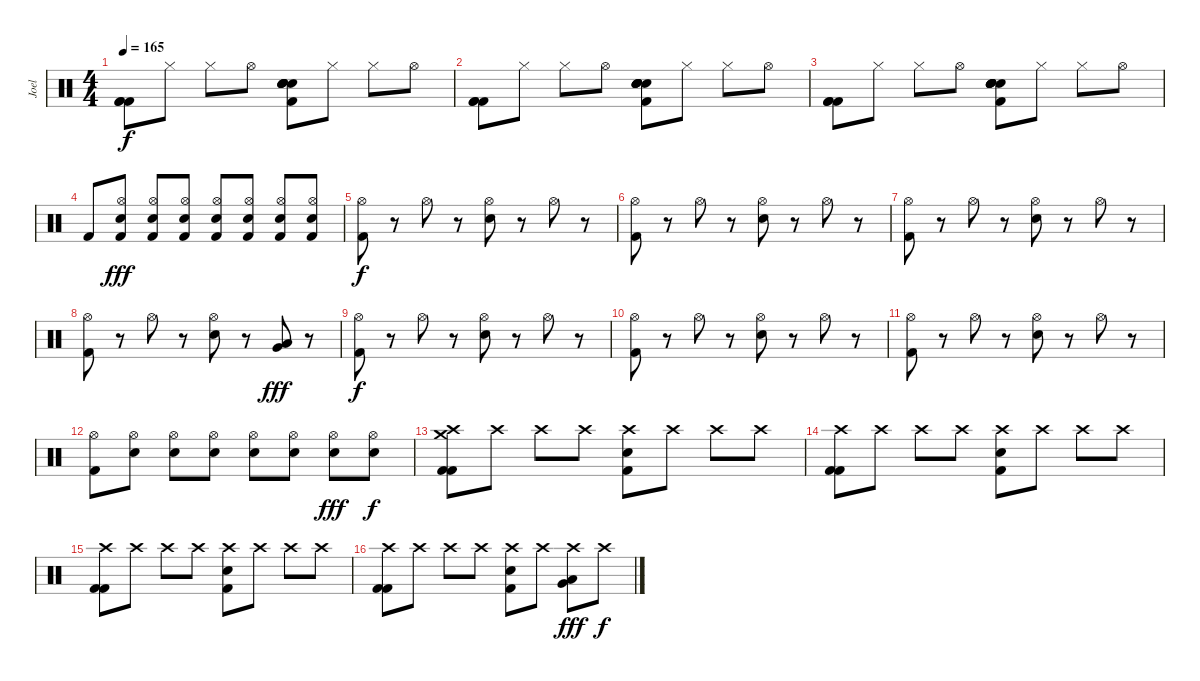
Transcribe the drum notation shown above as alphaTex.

\track ("Joel" "Joel") {instrument percussion}
\staff {score}
\articulation defaults
\ts (4 4)
\tempo 165
\clef neutral
\ks c
("Kick (hit) 2" "Kick (hit) 2" "Kick (hit) 2").8{dy f} "Hi-Hat (closed)".8 "Hi-Hat (closed)".8 "Hi-Hat (open)".8 ("Electric Snare (hit)" "Electric Snare (hit)" "Electric Snare (hit)" "Electric Snare (hit)" "Kick (hit) 2" "Electric Snare (hit)").8 "Hi-Hat (closed)".8 "Hi-Hat (closed)".8 "Hi-Hat (open)".8 |
("Kick (hit) 2" "Kick (hit) 2" "Kick (hit) 2").8 "Hi-Hat (closed)".8 "Hi-Hat (closed)".8 "Hi-Hat (open)".8 ("Electric Snare (hit)" "Electric Snare (hit)" "Electric Snare (hit)" "Electric Snare (hit)" "Kick (hit) 2" "Electric Snare (hit)").8 "Hi-Hat (closed)".8 "Hi-Hat (closed)".8 "Hi-Hat (open)".8 |
("Kick (hit) 2" "Kick (hit) 2" "Kick (hit) 2").8 "Hi-Hat (closed)".8 "Hi-Hat (closed)".8 "Hi-Hat (open)".8 ("Electric Snare (hit)" "Electric Snare (hit)" "Electric Snare (hit)" "Electric Snare (hit)" "Kick (hit) 2" "Electric Snare (hit)").8 "Hi-Hat (closed)".8 "Hi-Hat (closed)".8 "Hi-Hat (open)".8 |
"Kick (hit) 2".8 ("Hi-Hat (open)" "Kick (hit) 2" "Electric Snare (hit)").8{dy fff} ("Hi-Hat (open)" "Kick (hit) 2" "Electric Snare (hit)").8 ("Hi-Hat (open)" "Kick (hit) 2" "Electric Snare (hit)").8 ("Hi-Hat (open)" "Kick (hit) 2" "Electric Snare (hit)").8 ("Hi-Hat (open)" "Kick (hit) 2" "Electric Snare (hit)").8 ("Hi-Hat (open)" "Kick (hit) 2" "Electric Snare (hit)").8 ("Hi-Hat (open)" "Kick (hit) 2" "Electric Snare (hit)").8 |
("Hi-Hat (open)" "Kick (hit) 2").8{dy f} r.8 "Hi-Hat (open)".8 r.8 ("Hi-Hat (open)" "Electric Snare (hit)").8 r.8 "Hi-Hat (open)".8 r.8 |
("Hi-Hat (open)" "Kick (hit) 2").8 r.8 "Hi-Hat (open)".8 r.8 ("Hi-Hat (open)" "Electric Snare (hit)").8 r.8 "Hi-Hat (open)".8 r.8 |
("Hi-Hat (open)" "Kick (hit) 2").8 r.8 "Hi-Hat (open)".8 r.8 ("Hi-Hat (open)" "Electric Snare (hit)").8 r.8 "Hi-Hat (open)".8 r.8 |
("Hi-Hat (open)" "Kick (hit) 2").8 r.8 "Hi-Hat (open)".8 r.8 ("Hi-Hat (open)" "Electric Snare (hit)").8 r.8 ("Very Low Tom (hit)" "Low Floor Tom (hit)").8{dy fff} r.8 |
("Hi-Hat (open)" "Kick (hit) 2").8{dy f} r.8 "Hi-Hat (open)".8 r.8 ("Hi-Hat (open)" "Electric Snare (hit)").8 r.8 "Hi-Hat (open)".8 r.8 |
("Hi-Hat (open)" "Kick (hit) 2").8 r.8 "Hi-Hat (open)".8 r.8 ("Hi-Hat (open)" "Electric Snare (hit)").8 r.8 "Hi-Hat (open)".8 r.8 |
("Hi-Hat (open)" "Kick (hit) 2").8 r.8 "Hi-Hat (open)".8 r.8 ("Hi-Hat (open)" "Electric Snare (hit)").8 r.8 "Hi-Hat (open)".8 r.8 |
("Hi-Hat (open)" "Kick (hit) 2").8 ("Hi-Hat (open)" "Electric Snare (hit)").8 ("Hi-Hat (open)" "Electric Snare (hit)").8 ("Hi-Hat (open)" "Electric Snare (hit)").8 ("Hi-Hat (open)" "Electric Snare (hit)").8 ("Hi-Hat (open)" "Electric Snare (hit)").8 ("Hi-Hat (open)" "Electric Snare (hit)").8{dy fff} ("Hi-Hat (open)" "Electric Snare (hit)").8{dy f} |
("Crash high (hit)" "Crash medium (hit)" "Kick (hit) 2" "Kick (hit) 2").8 "Crash high (hit)".8 "Crash high (hit)".8 "Crash high (hit)".8 ("Crash high (hit)" "Kick (hit) 2" "Electric Snare (hit)").8 "Crash high (hit)".8 "Crash high (hit)".8 "Crash high (hit)".8 |
("Crash high (hit)" "Kick (hit) 2" "Kick (hit) 2").8 "Crash high (hit)".8 "Crash high (hit)".8 "Crash high (hit)".8 ("Crash high (hit)" "Kick (hit) 2" "Electric Snare (hit)").8 "Crash high (hit)".8 "Crash high (hit)".8 "Crash high (hit)".8 |
("Crash high (hit)" "Kick (hit) 2" "Kick (hit) 2").8 "Crash high (hit)".8 "Crash high (hit)".8 "Crash high (hit)".8 ("Crash high (hit)" "Kick (hit) 2" "Electric Snare (hit)").8 "Crash high (hit)".8 "Crash high (hit)".8 "Crash high (hit)".8 |
("Crash high (hit)" "Kick (hit) 2" "Kick (hit) 2").8 "Crash high (hit)".8 "Crash high (hit)".8 "Crash high (hit)".8 ("Crash high (hit)" "Kick (hit) 2" "Electric Snare (hit)").8 "Crash high (hit)".8 ("Crash high (hit)" "Very Low Tom (hit)" "Low Floor Tom (hit)").8{dy fff} "Crash high (hit)".8{dy f}
